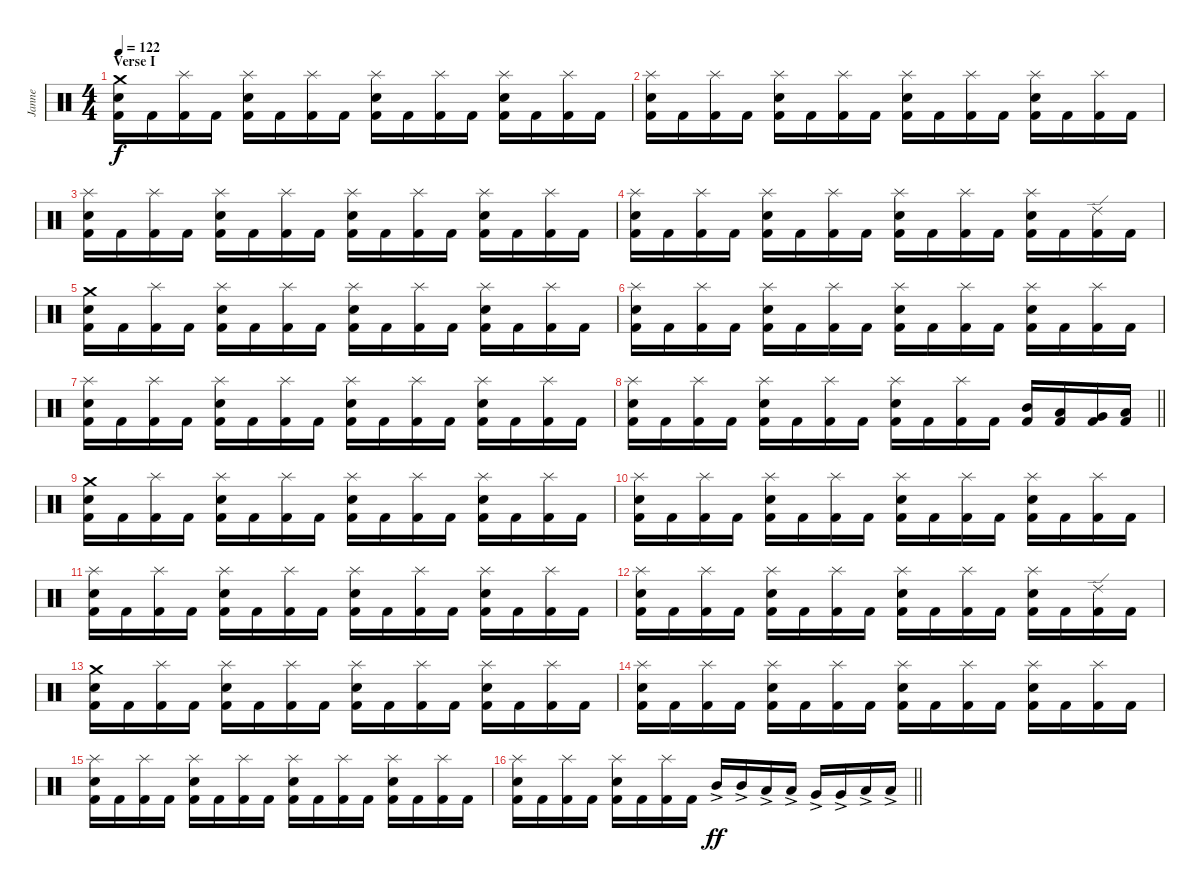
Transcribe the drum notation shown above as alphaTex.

\track ("Janne" "Janne") {instrument percussion}
\staff {score}
\articulation defaults
\ts (4 4)
\section ("" "Verse I")
\tempo 122
\clef neutral
\ks c
("Kick (hit) 2" "Snare (hit) 2" "Crash medium (hit)").16{dy f} "Kick (hit) 2".16 ("Kick (hit) 2" "Splash (hit)").16 "Kick (hit) 2".16 ("Kick (hit) 2" "Snare (hit) 2" "Splash (hit)").16 "Kick (hit) 2".16 ("Kick (hit) 2" "Splash (hit)").16 "Kick (hit) 2".16 ("Kick (hit) 2" "Snare (hit) 2" "Splash (hit)").16 "Kick (hit) 2".16 ("Kick (hit) 2" "Splash (hit)").16 "Kick (hit) 2".16 ("Kick (hit) 2" "Snare (hit) 2" "Splash (hit)").16 "Kick (hit) 2".16 ("Kick (hit) 2" "Splash (hit)").16 "Kick (hit) 2".16 |
("Kick (hit) 2" "Snare (hit) 2" "Splash (hit)").16 "Kick (hit) 2".16 ("Kick (hit) 2" "Splash (hit)").16 "Kick (hit) 2".16 ("Kick (hit) 2" "Snare (hit) 2" "Splash (hit)").16 "Kick (hit) 2".16 ("Kick (hit) 2" "Splash (hit)").16 "Kick (hit) 2".16 ("Kick (hit) 2" "Snare (hit) 2" "Splash (hit)").16 "Kick (hit) 2".16 ("Kick (hit) 2" "Splash (hit)").16 "Kick (hit) 2".16 ("Kick (hit) 2" "Snare (hit) 2" "Splash (hit)").16 "Kick (hit) 2".16 ("Kick (hit) 2" "Splash (hit)").16 "Kick (hit) 2".16 |
("Kick (hit) 2" "Snare (hit) 2" "Splash (hit)").16 "Kick (hit) 2".16 ("Kick (hit) 2" "Splash (hit)").16 "Kick (hit) 2".16 ("Kick (hit) 2" "Snare (hit) 2" "Splash (hit)").16 "Kick (hit) 2".16 ("Kick (hit) 2" "Splash (hit)").16 "Kick (hit) 2".16 ("Kick (hit) 2" "Snare (hit) 2" "Splash (hit)").16 "Kick (hit) 2".16 ("Kick (hit) 2" "Splash (hit)").16 "Kick (hit) 2".16 ("Kick (hit) 2" "Snare (hit) 2" "Splash (hit)").16 "Kick (hit) 2".16 ("Kick (hit) 2" "Splash (hit)").16 "Kick (hit) 2".16 |
("Kick (hit) 2" "Snare (hit) 2" "Splash (hit)").16 "Kick (hit) 2".16 ("Kick (hit) 2" "Splash (hit)").16 "Kick (hit) 2".16 ("Kick (hit) 2" "Snare (hit) 2" "Splash (hit)").16 "Kick (hit) 2".16 ("Kick (hit) 2" "Splash (hit)").16 "Kick (hit) 2".16 ("Kick (hit) 2" "Snare (hit) 2" "Splash (hit)").16 "Kick (hit) 2".16 ("Kick (hit) 2" "Splash (hit)").16 "Kick (hit) 2".16 ("Kick (hit) 2" "Snare (hit) 2" "Splash (hit)").16 "Kick (hit) 2".16 ("Kick (hit) 2" "Ride (edge) 2").16 "Kick (hit) 2".16 |
("Kick (hit) 2" "Snare (hit) 2" "Crash medium (hit)").16 "Kick (hit) 2".16 ("Kick (hit) 2" "Splash (hit)").16 "Kick (hit) 2".16 ("Kick (hit) 2" "Snare (hit) 2" "Splash (hit)").16 "Kick (hit) 2".16 ("Kick (hit) 2" "Splash (hit)").16 "Kick (hit) 2".16 ("Kick (hit) 2" "Snare (hit) 2" "Splash (hit)").16 "Kick (hit) 2".16 ("Kick (hit) 2" "Splash (hit)").16 "Kick (hit) 2".16 ("Kick (hit) 2" "Snare (hit) 2" "Splash (hit)").16 "Kick (hit) 2".16 ("Kick (hit) 2" "Splash (hit)").16 "Kick (hit) 2".16 |
("Kick (hit) 2" "Snare (hit) 2" "Splash (hit)").16 "Kick (hit) 2".16 ("Kick (hit) 2" "Splash (hit)").16 "Kick (hit) 2".16 ("Kick (hit) 2" "Snare (hit) 2" "Splash (hit)").16 "Kick (hit) 2".16 ("Kick (hit) 2" "Splash (hit)").16 "Kick (hit) 2".16 ("Kick (hit) 2" "Snare (hit) 2" "Splash (hit)").16 "Kick (hit) 2".16 ("Kick (hit) 2" "Splash (hit)").16 "Kick (hit) 2".16 ("Kick (hit) 2" "Snare (hit) 2" "Splash (hit)").16 "Kick (hit) 2".16 ("Kick (hit) 2" "Splash (hit)").16 "Kick (hit) 2".16 |
("Kick (hit) 2" "Snare (hit) 2" "Splash (hit)").16 "Kick (hit) 2".16 ("Kick (hit) 2" "Splash (hit)").16 "Kick (hit) 2".16 ("Kick (hit) 2" "Snare (hit) 2" "Splash (hit)").16 "Kick (hit) 2".16 ("Kick (hit) 2" "Splash (hit)").16 "Kick (hit) 2".16 ("Kick (hit) 2" "Snare (hit) 2" "Splash (hit)").16 "Kick (hit) 2".16 ("Kick (hit) 2" "Splash (hit)").16 "Kick (hit) 2".16 ("Kick (hit) 2" "Snare (hit) 2" "Splash (hit)").16 "Kick (hit) 2".16 ("Kick (hit) 2" "Splash (hit)").16 "Kick (hit) 2".16 |
\barLineRight lightlight
("Kick (hit) 2" "Snare (hit) 2" "Splash (hit)").16 "Kick (hit) 2".16 ("Kick (hit) 2" "Splash (hit)").16 "Kick (hit) 2".16 ("Kick (hit) 2" "Snare (hit) 2" "Splash (hit)").16 "Kick (hit) 2".16 ("Kick (hit) 2" "Splash (hit)").16 "Kick (hit) 2".16 ("Kick (hit) 2" "Snare (hit) 2" "Splash (hit)").16 "Kick (hit) 2".16 ("Kick (hit) 2" "Splash (hit)").16 "Kick (hit) 2".16 ("Kick (hit) 2" "Mid Tom (hit)").16 ("Kick (hit) 2" "Low Tom (hit)").16 ("Kick (hit) 2" "Very Low Tom (hit)").16 ("Kick (hit) 2" "Low Floor Tom (hit)").16 |
\section ("" "")
("Kick (hit) 2" "Snare (hit) 2" "Crash medium (hit)").16 "Kick (hit) 2".16 ("Kick (hit) 2" "Splash (hit)").16 "Kick (hit) 2".16 ("Kick (hit) 2" "Snare (hit) 2" "Splash (hit)").16 "Kick (hit) 2".16 ("Kick (hit) 2" "Splash (hit)").16 "Kick (hit) 2".16 ("Kick (hit) 2" "Snare (hit) 2" "Splash (hit)").16 "Kick (hit) 2".16 ("Kick (hit) 2" "Splash (hit)").16 "Kick (hit) 2".16 ("Kick (hit) 2" "Snare (hit) 2" "Splash (hit)").16 "Kick (hit) 2".16 ("Kick (hit) 2" "Splash (hit)").16 "Kick (hit) 2".16 |
("Kick (hit) 2" "Snare (hit) 2" "Splash (hit)").16 "Kick (hit) 2".16 ("Kick (hit) 2" "Splash (hit)").16 "Kick (hit) 2".16 ("Kick (hit) 2" "Snare (hit) 2" "Splash (hit)").16 "Kick (hit) 2".16 ("Kick (hit) 2" "Splash (hit)").16 "Kick (hit) 2".16 ("Kick (hit) 2" "Snare (hit) 2" "Splash (hit)").16 "Kick (hit) 2".16 ("Kick (hit) 2" "Splash (hit)").16 "Kick (hit) 2".16 ("Kick (hit) 2" "Snare (hit) 2" "Splash (hit)").16 "Kick (hit) 2".16 ("Kick (hit) 2" "Splash (hit)").16 "Kick (hit) 2".16 |
("Kick (hit) 2" "Snare (hit) 2" "Splash (hit)").16 "Kick (hit) 2".16 ("Kick (hit) 2" "Splash (hit)").16 "Kick (hit) 2".16 ("Kick (hit) 2" "Snare (hit) 2" "Splash (hit)").16 "Kick (hit) 2".16 ("Kick (hit) 2" "Splash (hit)").16 "Kick (hit) 2".16 ("Kick (hit) 2" "Snare (hit) 2" "Splash (hit)").16 "Kick (hit) 2".16 ("Kick (hit) 2" "Splash (hit)").16 "Kick (hit) 2".16 ("Kick (hit) 2" "Snare (hit) 2" "Splash (hit)").16 "Kick (hit) 2".16 ("Kick (hit) 2" "Splash (hit)").16 "Kick (hit) 2".16 |
("Kick (hit) 2" "Snare (hit) 2" "Splash (hit)").16 "Kick (hit) 2".16 ("Kick (hit) 2" "Splash (hit)").16 "Kick (hit) 2".16 ("Kick (hit) 2" "Snare (hit) 2" "Splash (hit)").16 "Kick (hit) 2".16 ("Kick (hit) 2" "Splash (hit)").16 "Kick (hit) 2".16 ("Kick (hit) 2" "Snare (hit) 2" "Splash (hit)").16 "Kick (hit) 2".16 ("Kick (hit) 2" "Splash (hit)").16 "Kick (hit) 2".16 ("Kick (hit) 2" "Snare (hit) 2" "Splash (hit)").16 "Kick (hit) 2".16 ("Kick (hit) 2" "Ride (edge) 2").16 "Kick (hit) 2".16 |
("Kick (hit) 2" "Snare (hit) 2" "Crash medium (hit)").16 "Kick (hit) 2".16 ("Kick (hit) 2" "Splash (hit)").16 "Kick (hit) 2".16 ("Kick (hit) 2" "Snare (hit) 2" "Splash (hit)").16 "Kick (hit) 2".16 ("Kick (hit) 2" "Splash (hit)").16 "Kick (hit) 2".16 ("Kick (hit) 2" "Snare (hit) 2" "Splash (hit)").16 "Kick (hit) 2".16 ("Kick (hit) 2" "Splash (hit)").16 "Kick (hit) 2".16 ("Kick (hit) 2" "Snare (hit) 2" "Splash (hit)").16 "Kick (hit) 2".16 ("Kick (hit) 2" "Splash (hit)").16 "Kick (hit) 2".16 |
("Kick (hit) 2" "Snare (hit) 2" "Splash (hit)").16 "Kick (hit) 2".16 ("Kick (hit) 2" "Splash (hit)").16 "Kick (hit) 2".16 ("Kick (hit) 2" "Snare (hit) 2" "Splash (hit)").16 "Kick (hit) 2".16 ("Kick (hit) 2" "Splash (hit)").16 "Kick (hit) 2".16 ("Kick (hit) 2" "Snare (hit) 2" "Splash (hit)").16 "Kick (hit) 2".16 ("Kick (hit) 2" "Splash (hit)").16 "Kick (hit) 2".16 ("Kick (hit) 2" "Snare (hit) 2" "Splash (hit)").16 "Kick (hit) 2".16 ("Kick (hit) 2" "Splash (hit)").16 "Kick (hit) 2".16 |
("Kick (hit) 2" "Snare (hit) 2" "Splash (hit)").16 "Kick (hit) 2".16 ("Kick (hit) 2" "Splash (hit)").16 "Kick (hit) 2".16 ("Kick (hit) 2" "Snare (hit) 2" "Splash (hit)").16 "Kick (hit) 2".16 ("Kick (hit) 2" "Splash (hit)").16 "Kick (hit) 2".16 ("Kick (hit) 2" "Snare (hit) 2" "Splash (hit)").16 "Kick (hit) 2".16 ("Kick (hit) 2" "Splash (hit)").16 "Kick (hit) 2".16 ("Kick (hit) 2" "Snare (hit) 2" "Splash (hit)").16 "Kick (hit) 2".16 ("Kick (hit) 2" "Splash (hit)").16 "Kick (hit) 2".16 |
\barLineRight lightlight
("Kick (hit) 2" "Snare (hit) 2" "Splash (hit)").16 "Kick (hit) 2".16 ("Kick (hit) 2" "Splash (hit)").16 "Kick (hit) 2".16 ("Kick (hit) 2" "Snare (hit) 2" "Splash (hit)").16 "Kick (hit) 2".16 ("Kick (hit) 2" "Splash (hit)").16 "Kick (hit) 2".16 "Mid Tom (hit)"{ac}.16{dy ff} "Mid Tom (hit)"{ac}.16 "Low Tom (hit)"{ac}.16 "Low Tom (hit)"{ac}.16 "Very Low Tom (hit)"{ac}.16 "Very Low Tom (hit)"{ac}.16 "Low Floor Tom (hit)"{ac}.16 "Low Floor Tom (hit)"{ac}.16
